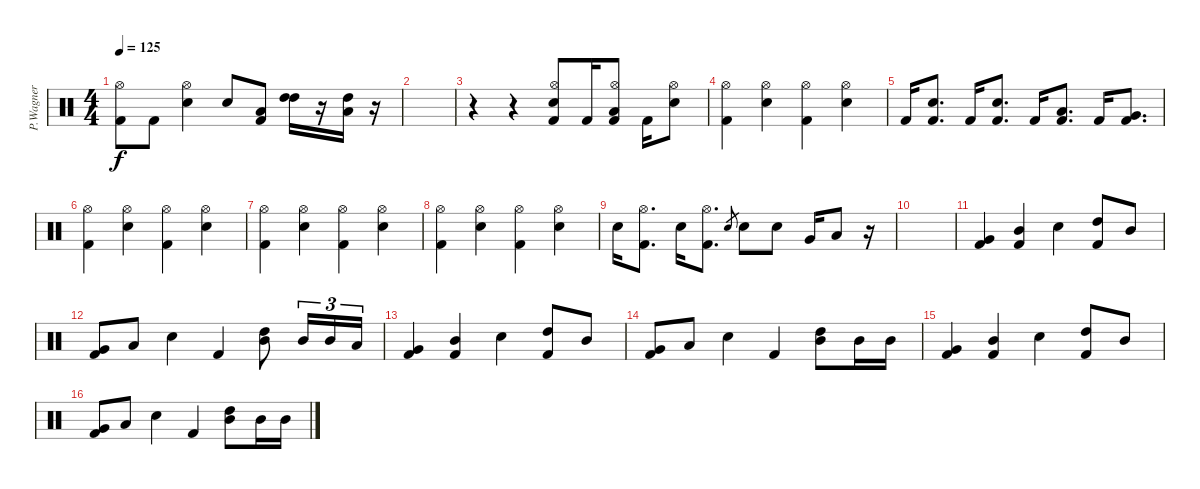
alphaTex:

\track ("P.Wagner" "P.Wagner") {instrument percussion}
\staff {score}
\articulation defaults
\ts (4 4)
\tempo 125
\clef neutral
\ks c
("Kick (hit) 2" "Hi-Hat (open)").8{dy f} "Kick (hit) 2".8 ("Hi-Hat (open)" "Electric Snare (hit)").4 "Electric Snare (hit)".8 ("Low Tom (hit)" "Kick (hit) 2").8 ("High Tom (hit)" "High Tom (hit)").16 r.16 ("Low Tom (hit)" "High Tom (hit)").16 r.16 |
|
r.4 r.4 ("Kick (hit) 2" "Electric Snare (hit)" "Hi-Hat (open)").8 "Kick (hit) 2".16 ("Kick (hit) 2" "Low Tom (hit)" "Hi-Hat (open)").8 "Kick (hit) 2".16 ("Electric Snare (hit)" "Hi-Hat (open)").8 |
("Kick (hit) 2" "Hi-Hat (open)").4 ("Electric Snare (hit)" "Hi-Hat (open)").4 ("Kick (hit) 2" "Hi-Hat (open)").4 ("Hi-Hat (open)" "Electric Snare (hit)").4 |
"Kick (hit) 2".16 ("Electric Snare (hit)" "Kick (hit) 2").8{d} "Kick (hit) 2".16 ("Electric Snare (hit)" "Kick (hit) 2").8{d} "Kick (hit) 2".16 ("Low Tom (hit)" "Kick (hit) 2").8{d} "Kick (hit) 2".16 ("Very Low Tom (hit)" "Kick (hit) 2").8{d} |
("Kick (hit) 2" "Hi-Hat (open)").4 ("Electric Snare (hit)" "Hi-Hat (open)").4 ("Kick (hit) 2" "Hi-Hat (open)").4 ("Hi-Hat (open)" "Electric Snare (hit)").4 |
("Kick (hit) 2" "Hi-Hat (open)").4 ("Electric Snare (hit)" "Hi-Hat (open)").4 ("Kick (hit) 2" "Hi-Hat (open)").4 ("Hi-Hat (open)" "Electric Snare (hit)").4 |
("Kick (hit) 2" "Hi-Hat (open)").4 ("Electric Snare (hit)" "Hi-Hat (open)").4 ("Kick (hit) 2" "Hi-Hat (open)").4 ("Hi-Hat (open)" "Electric Snare (hit)").4 |
"Electric Snare (hit)".16 ("Kick (hit) 2" "Hi-Hat (open)").8{d} "Electric Snare (hit)".16 ("Kick (hit) 2" "Hi-Hat (open)").8{d} "Electric Snare (hit)".8{gr} "Electric Snare (hit)".8 "Electric Snare (hit)".8 "Very Low Tom (hit)".16 "Low Floor Tom (hit)".8 r.16 |
|
("Kick (hit) 2" "Very Low Tom (hit)").4 ("Mid Tom (hit)" "Kick (hit) 2").4 "Electric Snare (hit)".4 ("High Tom (hit)" "Kick (hit) 2").8 "Mid Tom (hit)".8 |
("Very Low Tom (hit)" "Kick (hit) 2").8 "Low Tom (hit)".8 "Electric Snare (hit)".4 "Kick (hit) 2".4 ("Mid Tom (hit)" "High Tom (hit)").8 "Mid Tom (hit)".16{tu (3 2)} "Mid Tom (hit)".16{tu (3 2)} "Low Tom (hit)".16{tu (3 2)} |
("Kick (hit) 2" "Very Low Tom (hit)").4 ("Mid Tom (hit)" "Kick (hit) 2").4 "Electric Snare (hit)".4 ("High Tom (hit)" "Kick (hit) 2").8 "Mid Tom (hit)".8 |
("Very Low Tom (hit)" "Kick (hit) 2").8 "Low Tom (hit)".8 "Electric Snare (hit)".4 "Kick (hit) 2".4 ("Mid Tom (hit)" "High Tom (hit)").8 "Mid Tom (hit)".16 "Mid Tom (hit)".16 |
("Kick (hit) 2" "Very Low Tom (hit)").4 ("Mid Tom (hit)" "Kick (hit) 2").4 "Electric Snare (hit)".4 ("High Tom (hit)" "Kick (hit) 2").8 "Mid Tom (hit)".8 |
("Very Low Tom (hit)" "Kick (hit) 2").8 "Low Tom (hit)".8 "Electric Snare (hit)".4 "Kick (hit) 2".4 ("Mid Tom (hit)" "High Tom (hit)").8 "Mid Tom (hit)".16 "Mid Tom (hit)".16
